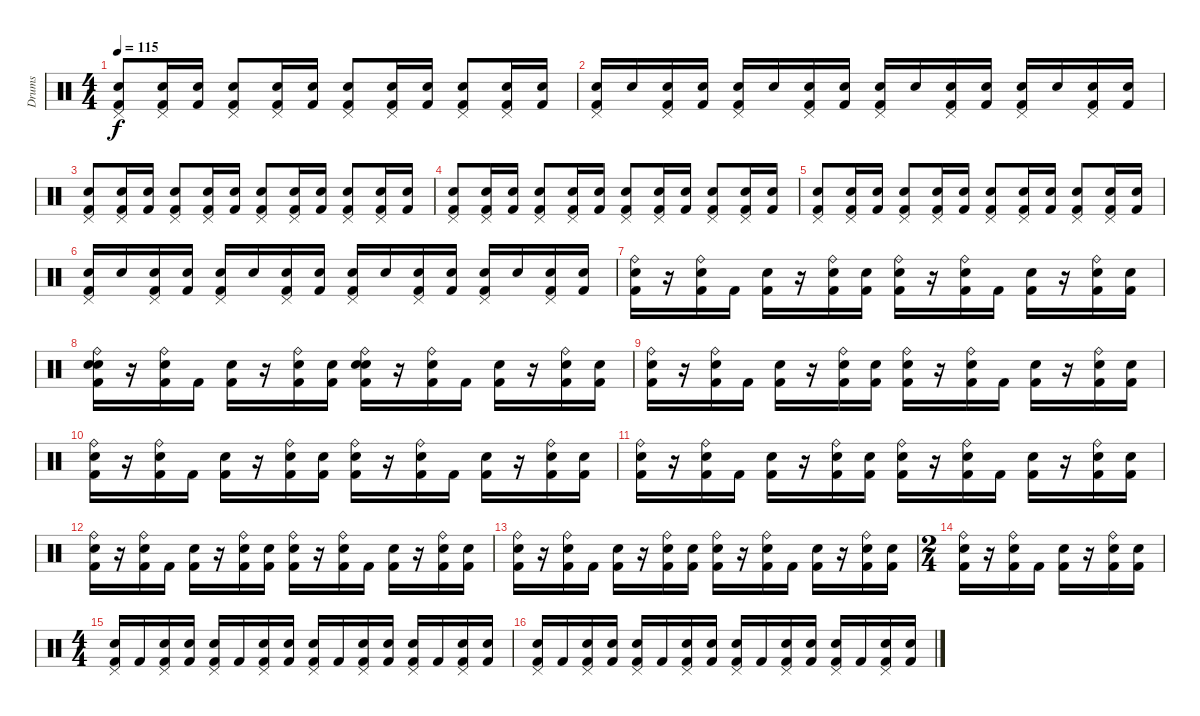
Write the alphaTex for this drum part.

\track ("Drums" "Drums") {instrument percussion}
\staff {score}
\articulation defaults
\ts (4 4)
\tempo 115
\clef neutral
\ks c
("Pedal Hi-Hat (hit)" "Kick (hit) 2" "Snare (hit) 2").8{dy f} ("Pedal Hi-Hat (hit)" "Kick (hit) 2" "Snare (hit) 2").16 ("Kick (hit) 2" "Snare (hit) 2").16 ("Pedal Hi-Hat (hit)" "Electric Snare (hit)" "Kick (hit) 2").8 ("Pedal Hi-Hat (hit)" "Kick (hit) 2" "Snare (hit) 2").16 ("Kick (hit) 2" "Snare (hit) 2").16 ("Pedal Hi-Hat (hit)" "Kick (hit) 2" "Snare (hit) 2").8 ("Pedal Hi-Hat (hit)" "Kick (hit) 2" "Snare (hit) 2").16 ("Kick (hit) 2" "Snare (hit) 2").16 ("Pedal Hi-Hat (hit)" "Electric Snare (hit)" "Kick (hit) 2").8 ("Pedal Hi-Hat (hit)" "Kick (hit) 2" "Snare (hit) 2").16 ("Kick (hit) 2" "Snare (hit) 2").16 |
("Pedal Hi-Hat (hit)" "Kick (hit) 2" "Snare (hit) 2").16 "Snare (hit) 2".16 ("Pedal Hi-Hat (hit)" "Kick (hit) 2" "Snare (hit) 2").16 ("Kick (hit) 2" "Snare (hit) 2").16 ("Pedal Hi-Hat (hit)" "Kick (hit) 2" "Snare (hit) 2").16 "Snare (hit) 2".16 ("Pedal Hi-Hat (hit)" "Kick (hit) 2" "Snare (hit) 2").16 ("Kick (hit) 2" "Snare (hit) 2").16 ("Pedal Hi-Hat (hit)" "Kick (hit) 2" "Electric Snare (hit)").16 "Electric Snare (hit)".16 ("Pedal Hi-Hat (hit)" "Kick (hit) 2" "Electric Snare (hit)").16 ("Kick (hit) 2" "Electric Snare (hit)").16 ("Pedal Hi-Hat (hit)" "Kick (hit) 2" "Electric Snare (hit)").16 "Electric Snare (hit)".16 ("Pedal Hi-Hat (hit)" "Kick (hit) 2" "Electric Snare (hit)").16 ("Kick (hit) 2" "Electric Snare (hit)").16 |
("Pedal Hi-Hat (hit)" "Kick (hit) 2" "Snare (hit) 2").8 ("Pedal Hi-Hat (hit)" "Kick (hit) 2" "Snare (hit) 2").16 ("Kick (hit) 2" "Snare (hit) 2").16 ("Pedal Hi-Hat (hit)" "Electric Snare (hit)" "Kick (hit) 2").8 ("Pedal Hi-Hat (hit)" "Kick (hit) 2" "Snare (hit) 2").16 ("Kick (hit) 2" "Snare (hit) 2").16 ("Pedal Hi-Hat (hit)" "Kick (hit) 2" "Snare (hit) 2").8 ("Pedal Hi-Hat (hit)" "Kick (hit) 2" "Snare (hit) 2").16 ("Kick (hit) 2" "Snare (hit) 2").16 ("Pedal Hi-Hat (hit)" "Electric Snare (hit)" "Kick (hit) 2").8 ("Pedal Hi-Hat (hit)" "Kick (hit) 2" "Snare (hit) 2").16 ("Kick (hit) 2" "Snare (hit) 2").16 |
("Pedal Hi-Hat (hit)" "Kick (hit) 2" "Snare (hit) 2").8 ("Pedal Hi-Hat (hit)" "Kick (hit) 2" "Snare (hit) 2").16 ("Kick (hit) 2" "Snare (hit) 2").16 ("Pedal Hi-Hat (hit)" "Electric Snare (hit)" "Kick (hit) 2").8 ("Pedal Hi-Hat (hit)" "Kick (hit) 2" "Snare (hit) 2").16 ("Kick (hit) 2" "Snare (hit) 2").16 ("Pedal Hi-Hat (hit)" "Kick (hit) 2" "Snare (hit) 2").8 ("Pedal Hi-Hat (hit)" "Kick (hit) 2" "Snare (hit) 2").16 ("Kick (hit) 2" "Snare (hit) 2").16 ("Pedal Hi-Hat (hit)" "Electric Snare (hit)" "Kick (hit) 2").8 ("Pedal Hi-Hat (hit)" "Kick (hit) 2" "Snare (hit) 2").16 ("Kick (hit) 2" "Snare (hit) 2").16 |
("Pedal Hi-Hat (hit)" "Kick (hit) 2" "Snare (hit) 2").8 ("Pedal Hi-Hat (hit)" "Kick (hit) 2" "Snare (hit) 2").16 ("Kick (hit) 2" "Snare (hit) 2").16 ("Pedal Hi-Hat (hit)" "Electric Snare (hit)" "Kick (hit) 2").8 ("Pedal Hi-Hat (hit)" "Kick (hit) 2" "Snare (hit) 2").16 ("Kick (hit) 2" "Snare (hit) 2").16 ("Pedal Hi-Hat (hit)" "Kick (hit) 2" "Snare (hit) 2").8 ("Pedal Hi-Hat (hit)" "Kick (hit) 2" "Snare (hit) 2").16 ("Kick (hit) 2" "Snare (hit) 2").16 ("Pedal Hi-Hat (hit)" "Electric Snare (hit)" "Kick (hit) 2").8 ("Pedal Hi-Hat (hit)" "Kick (hit) 2" "Snare (hit) 2").16 ("Kick (hit) 2" "Snare (hit) 2").16 |
("Pedal Hi-Hat (hit)" "Kick (hit) 2" "Snare (hit) 2").16 "Snare (hit) 2".16 ("Pedal Hi-Hat (hit)" "Kick (hit) 2" "Snare (hit) 2").16 ("Kick (hit) 2" "Snare (hit) 2").16 ("Pedal Hi-Hat (hit)" "Kick (hit) 2" "Snare (hit) 2").16 "Snare (hit) 2".16 ("Pedal Hi-Hat (hit)" "Kick (hit) 2" "Snare (hit) 2").16 ("Kick (hit) 2" "Snare (hit) 2").16 ("Pedal Hi-Hat (hit)" "Kick (hit) 2" "Electric Snare (hit)").16 "Electric Snare (hit)".16 ("Pedal Hi-Hat (hit)" "Kick (hit) 2" "Electric Snare (hit)").16 ("Kick (hit) 2" "Electric Snare (hit)").16 ("Pedal Hi-Hat (hit)" "Kick (hit) 2" "Electric Snare (hit)").16 "Electric Snare (hit)".16 ("Pedal Hi-Hat (hit)" "Kick (hit) 2" "Electric Snare (hit)").16 ("Kick (hit) 2" "Electric Snare (hit)").16 |
("Ride (bell)" "Snare (hit) 2" "Kick (hit) 2").16 r.16 ("Ride (bell)" "Snare (hit) 2" "Kick (hit) 2").16 "Kick (hit) 2".16 ("Electric Snare (hit)" "Kick (hit) 2").16 r.16 ("Ride (bell)" "Snare (hit) 2" "Kick (hit) 2").16 ("Snare (hit) 2" "Kick (hit) 2").16 ("Ride (bell)" "Snare (hit) 2" "Kick (hit) 2").16 r.16 ("Ride (bell)" "Snare (hit) 2" "Kick (hit) 2").16 "Kick (hit) 2".16 ("Electric Snare (hit)" "Kick (hit) 2").16 r.16 ("Ride (bell)" "Snare (hit) 2" "Kick (hit) 2").16 ("Snare (hit) 2" "Kick (hit) 2").16 |
("Ride (bell)" "Electric Snare (hit)" "Snare (hit) 2" "Kick (hit) 2").16 r.16 ("Ride (bell)" "Snare (hit) 2" "Kick (hit) 2").16 "Kick (hit) 2".16 ("Electric Snare (hit)" "Kick (hit) 2").16 r.16 ("Ride (bell)" "Snare (hit) 2" "Kick (hit) 2").16 ("Snare (hit) 2" "Kick (hit) 2").16 ("Ride (bell)" "Electric Snare (hit)" "Snare (hit) 2" "Kick (hit) 2").16 r.16 ("Ride (bell)" "Snare (hit) 2" "Kick (hit) 2").16 "Kick (hit) 2".16 ("Electric Snare (hit)" "Kick (hit) 2").16 r.16 ("Ride (bell)" "Snare (hit) 2" "Kick (hit) 2").16 ("Snare (hit) 2" "Kick (hit) 2").16 |
("Ride (bell)" "Snare (hit) 2" "Kick (hit) 2").16 r.16 ("Ride (bell)" "Snare (hit) 2" "Kick (hit) 2").16 "Kick (hit) 2".16 ("Electric Snare (hit)" "Kick (hit) 2").16 r.16 ("Ride (bell)" "Snare (hit) 2" "Kick (hit) 2").16 ("Snare (hit) 2" "Kick (hit) 2").16 ("Ride (bell)" "Snare (hit) 2" "Kick (hit) 2").16 r.16 ("Ride (bell)" "Snare (hit) 2" "Kick (hit) 2").16 "Kick (hit) 2".16 ("Electric Snare (hit)" "Kick (hit) 2").16 r.16 ("Ride (bell)" "Snare (hit) 2" "Kick (hit) 2").16 ("Snare (hit) 2" "Kick (hit) 2").16 |
("Ride (bell)" "Snare (hit) 2" "Kick (hit) 2").16 r.16 ("Ride (bell)" "Snare (hit) 2" "Kick (hit) 2").16 "Kick (hit) 2".16 ("Electric Snare (hit)" "Kick (hit) 2").16 r.16 ("Ride (bell)" "Snare (hit) 2" "Kick (hit) 2").16 ("Snare (hit) 2" "Kick (hit) 2").16 ("Ride (bell)" "Snare (hit) 2" "Kick (hit) 2").16 r.16 ("Ride (bell)" "Snare (hit) 2" "Kick (hit) 2").16 "Kick (hit) 2".16 ("Electric Snare (hit)" "Kick (hit) 2").16 r.16 ("Ride (bell)" "Snare (hit) 2" "Kick (hit) 2").16 ("Snare (hit) 2" "Kick (hit) 2").16 |
("Ride (bell)" "Snare (hit) 2" "Kick (hit) 2").16 r.16 ("Ride (bell)" "Snare (hit) 2" "Kick (hit) 2").16 "Kick (hit) 2".16 ("Electric Snare (hit)" "Kick (hit) 2").16 r.16 ("Ride (bell)" "Snare (hit) 2" "Kick (hit) 2").16 ("Snare (hit) 2" "Kick (hit) 2").16 ("Ride (bell)" "Snare (hit) 2" "Kick (hit) 2").16 r.16 ("Ride (bell)" "Snare (hit) 2" "Kick (hit) 2").16 "Kick (hit) 2".16 ("Electric Snare (hit)" "Kick (hit) 2").16 r.16 ("Ride (bell)" "Snare (hit) 2" "Kick (hit) 2").16 ("Snare (hit) 2" "Kick (hit) 2").16 |
("Ride (bell)" "Snare (hit) 2" "Kick (hit) 2").16 r.16 ("Ride (bell)" "Snare (hit) 2" "Kick (hit) 2").16 "Kick (hit) 2".16 ("Electric Snare (hit)" "Kick (hit) 2").16 r.16 ("Ride (bell)" "Snare (hit) 2" "Kick (hit) 2").16 ("Snare (hit) 2" "Kick (hit) 2").16 ("Ride (bell)" "Snare (hit) 2" "Kick (hit) 2").16 r.16 ("Ride (bell)" "Snare (hit) 2" "Kick (hit) 2").16 "Kick (hit) 2".16 ("Electric Snare (hit)" "Kick (hit) 2").16 r.16 ("Ride (bell)" "Snare (hit) 2" "Kick (hit) 2").16 ("Snare (hit) 2" "Kick (hit) 2").16 |
("Ride (bell)" "Snare (hit) 2" "Kick (hit) 2").16 r.16 ("Ride (bell)" "Snare (hit) 2" "Kick (hit) 2").16 "Kick (hit) 2".16 ("Electric Snare (hit)" "Kick (hit) 2").16 r.16 ("Ride (bell)" "Snare (hit) 2" "Kick (hit) 2").16 ("Snare (hit) 2" "Kick (hit) 2").16 ("Ride (bell)" "Snare (hit) 2" "Kick (hit) 2").16 r.16 ("Ride (bell)" "Snare (hit) 2" "Kick (hit) 2").16 "Kick (hit) 2".16 ("Electric Snare (hit)" "Kick (hit) 2").16 r.16 ("Ride (bell)" "Snare (hit) 2" "Kick (hit) 2").16 ("Snare (hit) 2" "Kick (hit) 2").16 |
\ts (2 4)
("Ride (bell)" "Snare (hit) 2" "Kick (hit) 2").16 r.16 ("Ride (bell)" "Snare (hit) 2" "Kick (hit) 2").16 "Kick (hit) 2".16 ("Electric Snare (hit)" "Kick (hit) 2").16 r.16 ("Ride (bell)" "Snare (hit) 2" "Kick (hit) 2").16 ("Snare (hit) 2" "Kick (hit) 2").16 |
\ts (4 4)
("Pedal Hi-Hat (hit)" "Kick (hit) 2" "Snare (hit) 2").16 "Kick (hit) 2".16 ("Pedal Hi-Hat (hit)" "Kick (hit) 2" "Snare (hit) 2").16 ("Kick (hit) 2" "Snare (hit) 2").16 ("Pedal Hi-Hat (hit)" "Electric Snare (hit)" "Kick (hit) 2").16 "Kick (hit) 2".16 ("Pedal Hi-Hat (hit)" "Kick (hit) 2" "Snare (hit) 2").16 ("Kick (hit) 2" "Snare (hit) 2").16 ("Pedal Hi-Hat (hit)" "Kick (hit) 2" "Snare (hit) 2").16 "Kick (hit) 2".16 ("Pedal Hi-Hat (hit)" "Kick (hit) 2" "Snare (hit) 2").16 ("Kick (hit) 2" "Snare (hit) 2").16 ("Pedal Hi-Hat (hit)" "Electric Snare (hit)" "Kick (hit) 2").16 "Kick (hit) 2".16 ("Pedal Hi-Hat (hit)" "Kick (hit) 2" "Snare (hit) 2").16 ("Kick (hit) 2" "Snare (hit) 2").16 |
("Pedal Hi-Hat (hit)" "Kick (hit) 2" "Snare (hit) 2").16 "Kick (hit) 2".16 ("Pedal Hi-Hat (hit)" "Kick (hit) 2" "Snare (hit) 2").16 ("Kick (hit) 2" "Snare (hit) 2").16 ("Pedal Hi-Hat (hit)" "Electric Snare (hit)" "Kick (hit) 2").16 "Kick (hit) 2".16 ("Pedal Hi-Hat (hit)" "Kick (hit) 2" "Snare (hit) 2").16 ("Kick (hit) 2" "Snare (hit) 2").16 ("Pedal Hi-Hat (hit)" "Kick (hit) 2" "Snare (hit) 2").16 "Kick (hit) 2".16 ("Pedal Hi-Hat (hit)" "Kick (hit) 2" "Snare (hit) 2").16 ("Kick (hit) 2" "Snare (hit) 2").16 ("Pedal Hi-Hat (hit)" "Electric Snare (hit)" "Kick (hit) 2").16 "Kick (hit) 2".16 ("Pedal Hi-Hat (hit)" "Kick (hit) 2" "Snare (hit) 2").16 ("Kick (hit) 2" "Snare (hit) 2").16
